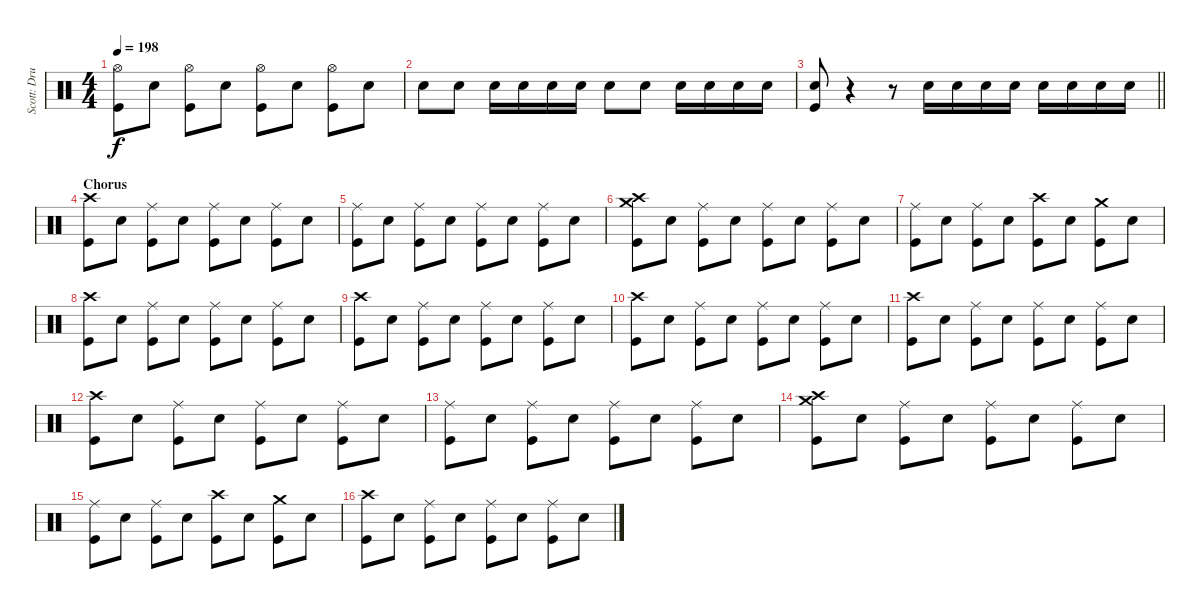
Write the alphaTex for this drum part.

\track ("Scott: Drums" "Scott: Dru") {instrument percussion}
\staff {score}
\articulation defaults
\ts (4 4)
\tempo 198
\clef neutral
\ks c
("Hi-Hat (open)" "Kick (hit)").8{dy f} "Electric Snare (hit)".8 ("Hi-Hat (open)" "Kick (hit)").8 "Electric Snare (hit)".8 ("Hi-Hat (open)" "Kick (hit)").8 "Electric Snare (hit)".8 ("Hi-Hat (open)" "Kick (hit)").8 "Electric Snare (hit)".8 |
"Electric Snare (hit)".8 "Electric Snare (hit)".8 "Electric Snare (hit)".16 "Electric Snare (hit)".16 "Electric Snare (hit)".16 "Electric Snare (hit)".16 "Electric Snare (hit)".8 "Electric Snare (hit)".8 "Electric Snare (hit)".16 "Electric Snare (hit)".16 "Electric Snare (hit)".16 "Electric Snare (hit)".16 |
\barLineRight lightlight
("Electric Snare (hit)" "Kick (hit)").8 r.4 r.8 "Electric Snare (hit)".16 "Electric Snare (hit)".16 "Electric Snare (hit)".16 "Electric Snare (hit)".16 "Electric Snare (hit)".16 "Electric Snare (hit)".16 "Electric Snare (hit)".16 "Electric Snare (hit)".16 |
\section ("" "Chorus")
("Crash high (hit)" "Kick (hit)").8 "Electric Snare (hit)".8 ("Ride (middle)" "Kick (hit)").8 "Electric Snare (hit)".8 ("Ride (middle)" "Kick (hit)").8 "Electric Snare (hit)".8 ("Ride (middle)" "Kick (hit)").8 "Electric Snare (hit)".8 |
("Ride (middle)" "Kick (hit)").8 "Electric Snare (hit)".8 ("Ride (middle)" "Kick (hit)").8 "Electric Snare (hit)".8 ("Ride (middle)" "Kick (hit)").8 "Electric Snare (hit)".8 ("Ride (middle)" "Kick (hit)").8 "Electric Snare (hit)".8 |
("Crash high (hit)" "Crash medium (hit)" "Kick (hit)").8 "Electric Snare (hit)".8 ("Ride (middle)" "Kick (hit)").8 "Electric Snare (hit)".8 ("Ride (middle)" "Kick (hit)").8 "Electric Snare (hit)".8 ("Ride (middle)" "Kick (hit)").8 "Electric Snare (hit)".8 |
("Ride (middle)" "Kick (hit)").8 "Electric Snare (hit)".8 ("Ride (middle)" "Kick (hit)").8 "Electric Snare (hit)".8 ("Crash high (hit)" "Kick (hit)").8 "Electric Snare (hit)".8 ("Crash medium (hit)" "Kick (hit)").8 "Electric Snare (hit)".8 |
("Crash high (hit)" "Kick (hit)").8 "Electric Snare (hit)".8 ("Ride (middle)" "Kick (hit)").8 "Electric Snare (hit)".8 ("Ride (middle)" "Kick (hit)").8 "Electric Snare (hit)".8 ("Ride (middle)" "Kick (hit)").8 "Electric Snare (hit)".8 |
("Crash high (hit)" "Kick (hit)").8 "Electric Snare (hit)".8 ("Ride (middle)" "Kick (hit)").8 "Electric Snare (hit)".8 ("Ride (middle)" "Kick (hit)").8 "Electric Snare (hit)".8 ("Ride (middle)" "Kick (hit)").8 "Electric Snare (hit)".8 |
("Crash high (hit)" "Kick (hit)").8 "Electric Snare (hit)".8 ("Ride (middle)" "Kick (hit)").8 "Electric Snare (hit)".8 ("Ride (middle)" "Kick (hit)").8 "Electric Snare (hit)".8 ("Ride (middle)" "Kick (hit)").8 "Electric Snare (hit)".8 |
("Crash high (hit)" "Kick (hit)").8 "Electric Snare (hit)".8 ("Ride (middle)" "Kick (hit)").8 "Electric Snare (hit)".8 ("Ride (middle)" "Kick (hit)").8 "Electric Snare (hit)".8 ("Ride (middle)" "Kick (hit)").8 "Electric Snare (hit)".8 |
("Crash high (hit)" "Kick (hit)").8 "Electric Snare (hit)".8 ("Ride (middle)" "Kick (hit)").8 "Electric Snare (hit)".8 ("Ride (middle)" "Kick (hit)").8 "Electric Snare (hit)".8 ("Ride (middle)" "Kick (hit)").8 "Electric Snare (hit)".8 |
("Ride (middle)" "Kick (hit)").8 "Electric Snare (hit)".8 ("Ride (middle)" "Kick (hit)").8 "Electric Snare (hit)".8 ("Ride (middle)" "Kick (hit)").8 "Electric Snare (hit)".8 ("Ride (middle)" "Kick (hit)").8 "Electric Snare (hit)".8 |
("Crash high (hit)" "Crash medium (hit)" "Kick (hit)").8 "Electric Snare (hit)".8 ("Ride (middle)" "Kick (hit)").8 "Electric Snare (hit)".8 ("Ride (middle)" "Kick (hit)").8 "Electric Snare (hit)".8 ("Ride (middle)" "Kick (hit)").8 "Electric Snare (hit)".8 |
("Ride (middle)" "Kick (hit)").8 "Electric Snare (hit)".8 ("Ride (middle)" "Kick (hit)").8 "Electric Snare (hit)".8 ("Crash high (hit)" "Kick (hit)").8 "Electric Snare (hit)".8 ("Crash medium (hit)" "Kick (hit)").8 "Electric Snare (hit)".8 |
("Crash high (hit)" "Kick (hit)").8 "Electric Snare (hit)".8 ("Ride (middle)" "Kick (hit)").8 "Electric Snare (hit)".8 ("Ride (middle)" "Kick (hit)").8 "Electric Snare (hit)".8 ("Ride (middle)" "Kick (hit)").8 "Electric Snare (hit)".8
